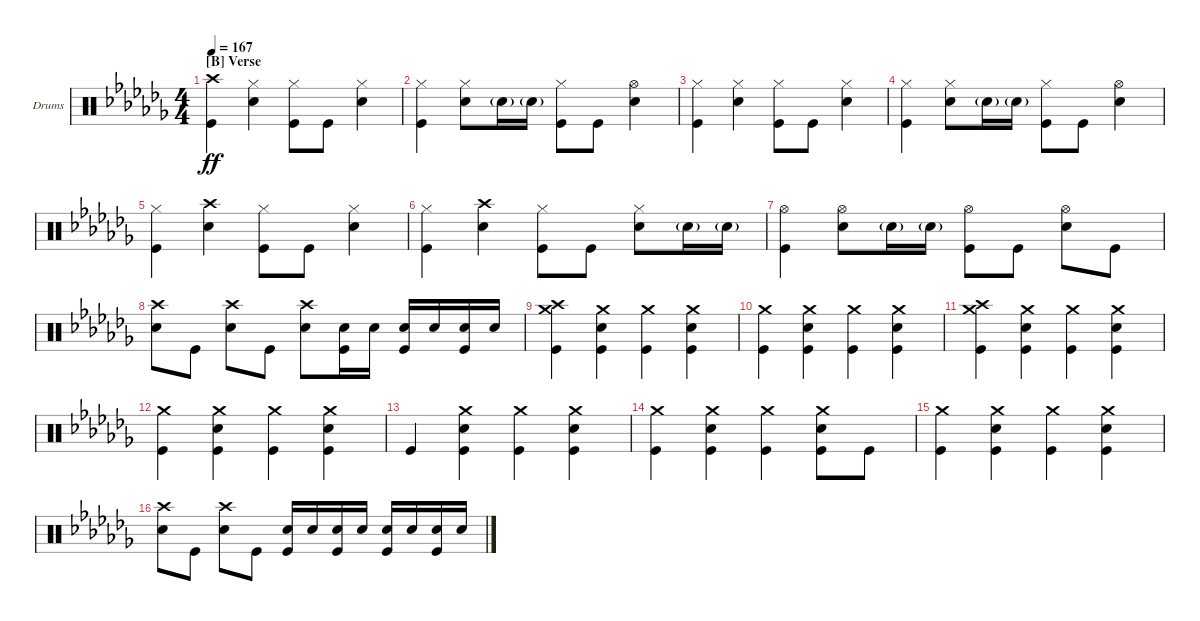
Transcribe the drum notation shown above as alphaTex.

\defaultSystemsLayout 4
\bracketExtendMode groupsimilarinstruments
\firstSystemTrackNameOrientation horizontal
\otherSystemsTrackNameOrientation horizontal
\track ("Drumkit" "Drums") {instrument percussion}
\staff {score}
\articulation defaults
\ts (4 4)
\section ("B" "Verse")
\scale
0.358788
\tempo 167
\accidentals auto
\clef neutral
\ottava regular
\simile none
\ks abminor
("Crash high (hit)" "Kick (hit)").4{dy ff} ("Snare (hit) 2" "Hi-Hat (closed)").4 ("Kick (hit)" "Hi-Hat (closed)").8 "Kick (hit)".8 ("Snare (hit) 2" "Hi-Hat (closed)").4 |
\scale
0.248215 ("Kick (hit)" "Hi-Hat (closed)").4 ("Snare (hit) 2" "Hi-Hat (closed)").8 "Snare (hit) 2"{g}.16 "Snare (hit) 2"{g}.16 ("Kick (hit)" "Hi-Hat (closed)").8 "Kick (hit)".8 ("Snare (hit) 2" "Hi-Hat (open)").4 |
\scale
0.218086 ("Kick (hit)" "Hi-Hat (closed)").4 ("Snare (hit) 2" "Hi-Hat (closed)").4 ("Kick (hit)" "Hi-Hat (closed)").8 "Kick (hit)".8 ("Snare (hit) 2" "Hi-Hat (closed)").4 |
\scale
0.302019 ("Kick (hit)" "Hi-Hat (closed)").4 ("Snare (hit) 2" "Hi-Hat (closed)").8 "Snare (hit) 2"{g}.16 "Snare (hit) 2"{g}.16 ("Kick (hit)" "Hi-Hat (closed)").8 "Kick (hit)".8 ("Snare (hit) 2" "Hi-Hat (open)").4 |
\scale
0.29484 ("Kick (hit)" "Hi-Hat (closed)").4 ("Snare (hit) 2" "Crash high (hit)").4 ("Kick (hit)" "Hi-Hat (closed)").8 "Kick (hit)".8 ("Snare (hit) 2" "Hi-Hat (closed)").4 |
\scale
0.247698 ("Kick (hit)" "Hi-Hat (closed)").4 ("Snare (hit) 2" "Crash high (hit)").4 ("Kick (hit)" "Hi-Hat (closed)").8 "Kick (hit)".8 ("Snare (hit) 2" "Hi-Hat (closed)").8 "Snare (hit) 2"{g}.16 "Snare (hit) 2"{g}.16 |
\scale
0.159931 ("Kick (hit)" "Hi-Hat (open)").4 ("Snare (hit) 2" "Hi-Hat (open)").8 "Snare (hit) 2"{g}.16 "Snare (hit) 2"{g}.16 ("Kick (hit)" "Hi-Hat (open)").8 "Kick (hit)".8 ("Snare (hit) 2" "Hi-Hat (open)").8 "Kick (hit)".8 |
("Snare (hit) 2" "Crash high (hit)").8 "Kick (hit)".8 ("Snare (hit) 2" "Crash high (hit)").8 "Kick (hit)".8 ("Snare (hit) 2" "Crash high (hit)").8 ("Snare (hit) 2" "Kick (hit)").16 "Snare (hit) 2".16 ("Snare (hit) 2" "Kick (hit)").16 "Snare (hit) 2".16 ("Snare (hit) 2" "Kick (hit)").16 "Snare (hit) 2".16 |
("Crash medium (hit)" "Crash high (hit)" "Kick (hit)").4 ("Snare (hit) 2" "Kick (hit)" "Crash medium (hit)").4 ("Kick (hit)" "Crash medium (hit)").4 ("Snare (hit) 2" "Kick (hit)" "Crash medium (hit)").4 |
("Kick (hit)" "Crash medium (hit)").4 ("Snare (hit) 2" "Kick (hit)" "Crash medium (hit)").4 ("Kick (hit)" "Crash medium (hit)").4 ("Snare (hit) 2" "Kick (hit)" "Crash medium (hit)").4 |
("Kick (hit)" "Crash medium (hit)" "Crash high (hit)").4 ("Snare (hit) 2" "Kick (hit)" "Crash medium (hit)").4 ("Kick (hit)" "Crash medium (hit)").4 ("Snare (hit) 2" "Kick (hit)" "Crash medium (hit)").4 |
("Kick (hit)" "Crash medium (hit)").4 ("Snare (hit) 2" "Kick (hit)" "Crash medium (hit)").4 ("Kick (hit)" "Crash medium (hit)").4 ("Snare (hit) 2" "Kick (hit)" "Crash medium (hit)").4 |
"Kick (hit)".4 ("Snare (hit) 2" "Kick (hit)" "Crash medium (hit)").4 ("Kick (hit)" "Crash medium (hit)").4 ("Snare (hit) 2" "Kick (hit)" "Crash medium (hit)").4 |
("Kick (hit)" "Crash medium (hit)").4 ("Snare (hit) 2" "Kick (hit)" "Crash medium (hit)").4 ("Kick (hit)" "Crash medium (hit)").4 ("Snare (hit) 2" "Kick (hit)" "Crash medium (hit)").8 "Kick (hit)".8 |
("Kick (hit)" "Crash medium (hit)").4 ("Snare (hit) 2" "Kick (hit)" "Crash medium (hit)").4 ("Kick (hit)" "Crash medium (hit)").4 ("Snare (hit) 2" "Kick (hit)" "Crash medium (hit)").4 |
("Crash high (hit)" "Snare (hit) 2").8 "Kick (hit)".8 ("Crash high (hit)" "Snare (hit) 2").8 "Kick (hit)".8 ("Kick (hit)" "Snare (hit) 2").16 "Snare (hit) 2".16 ("Kick (hit)" "Snare (hit) 2").16 "Snare (hit) 2".16 ("Kick (hit)" "Snare (hit) 2").16 "Snare (hit) 2".16 ("Kick (hit)" "Snare (hit) 2").16 "Snare (hit) 2".16
